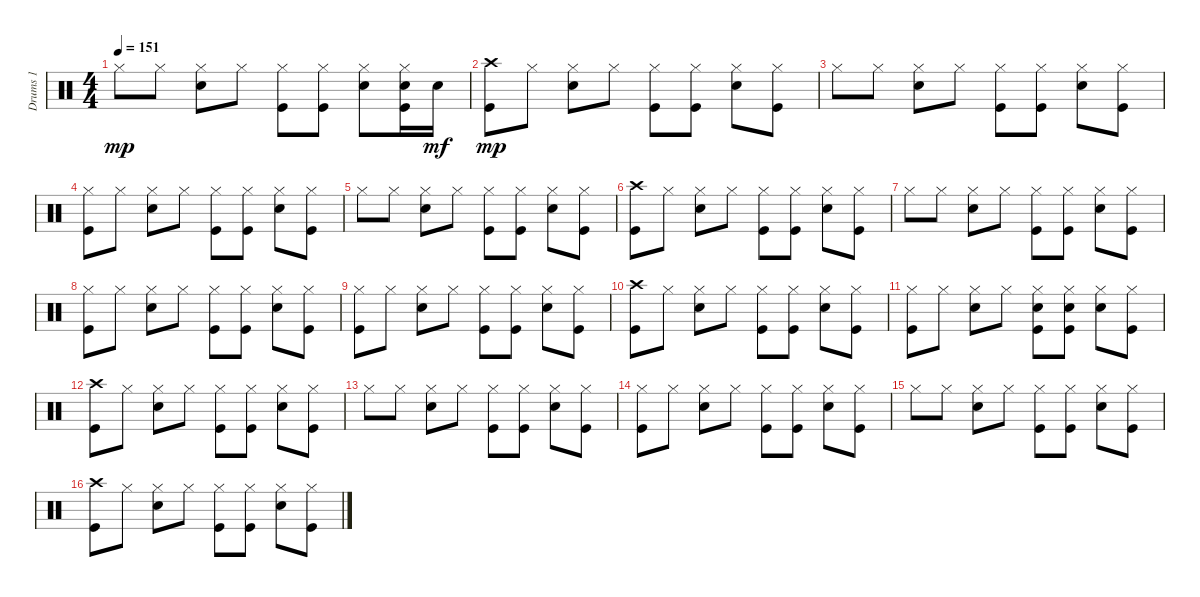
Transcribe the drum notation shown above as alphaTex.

\track ("Drums 1" "Drums 1") {instrument percussion}
\staff {score}
\articulation defaults
\ts (4 4)
\tempo 151
\clef neutral
\ks c "Hi-Hat (closed)".8{dy mp} "Hi-Hat (closed)".8
("Hi-Hat (closed)" "Snare (hit) 2").8 "Hi-Hat (closed)".8 ("Kick (hit)" "Hi-Hat (closed)").8 ("Kick (hit)" "Hi-Hat (closed)").8 ("Snare (hit) 2" "Hi-Hat (closed)").8 ("Snare (hit) 2" "Hi-Hat (closed)" "Kick (hit)").16 "Snare (hit) 2".16{dy mf} |
("Crash high (hit)" "Kick (hit)").8{dy mp} "Hi-Hat (closed)".8 ("Hi-Hat (closed)" "Snare (hit) 2").8 "Hi-Hat (closed)".8 ("Hi-Hat (closed)" "Kick (hit)").8 ("Kick (hit)" "Hi-Hat (closed)").8 ("Hi-Hat (closed)" "Snare (hit) 2").8 ("Hi-Hat (closed)" "Kick (hit)").8 |
"Hi-Hat (closed)".8 "Hi-Hat (closed)".8 ("Hi-Hat (closed)" "Snare (hit) 2").8 "Hi-Hat (closed)".8 ("Kick (hit)" "Hi-Hat (closed)").8 ("Kick (hit)" "Hi-Hat (closed)").8 ("Snare (hit) 2" "Hi-Hat (closed)").8 ("Hi-Hat (closed)" "Kick (hit)").8 |
("Hi-Hat (closed)" "Kick (hit)").8 "Hi-Hat (closed)".8 ("Hi-Hat (closed)" "Snare (hit) 2").8 "Hi-Hat (closed)".8 ("Hi-Hat (closed)" "Kick (hit)").8 ("Kick (hit)" "Hi-Hat (closed)").8 ("Hi-Hat (closed)" "Snare (hit) 2").8 ("Hi-Hat (closed)" "Kick (hit)").8 |
"Hi-Hat (closed)".8 "Hi-Hat (closed)".8 ("Hi-Hat (closed)" "Snare (hit) 2").8 "Hi-Hat (closed)".8 ("Kick (hit)" "Hi-Hat (closed)").8 ("Kick (hit)" "Hi-Hat (closed)").8 ("Snare (hit) 2" "Hi-Hat (closed)").8 ("Hi-Hat (closed)" "Kick (hit)").8 |
("Crash high (hit)" "Kick (hit)").8 "Hi-Hat (closed)".8 ("Hi-Hat (closed)" "Snare (hit) 2").8 "Hi-Hat (closed)".8 ("Hi-Hat (closed)" "Kick (hit)").8 ("Kick (hit)" "Hi-Hat (closed)").8 ("Hi-Hat (closed)" "Snare (hit) 2").8 ("Hi-Hat (closed)" "Kick (hit)").8 |
"Hi-Hat (closed)".8 "Hi-Hat (closed)".8 ("Hi-Hat (closed)" "Snare (hit) 2").8 "Hi-Hat (closed)".8 ("Kick (hit)" "Hi-Hat (closed)").8 ("Kick (hit)" "Hi-Hat (closed)").8 ("Snare (hit) 2" "Hi-Hat (closed)").8 ("Hi-Hat (closed)" "Kick (hit)").8 |
("Hi-Hat (closed)" "Kick (hit)").8 "Hi-Hat (closed)".8 ("Hi-Hat (closed)" "Snare (hit) 2").8 "Hi-Hat (closed)".8 ("Hi-Hat (closed)" "Kick (hit)").8 ("Kick (hit)" "Hi-Hat (closed)").8 ("Hi-Hat (closed)" "Snare (hit) 2").8 ("Hi-Hat (closed)" "Kick (hit)").8 |
("Hi-Hat (closed)" "Kick (hit)").8 "Hi-Hat (closed)".8 ("Hi-Hat (closed)" "Snare (hit) 2").8 "Hi-Hat (closed)".8 ("Hi-Hat (closed)" "Kick (hit)").8 ("Kick (hit)" "Hi-Hat (closed)").8 ("Hi-Hat (closed)" "Snare (hit) 2").8 ("Hi-Hat (closed)" "Kick (hit)").8 |
("Crash high (hit)" "Kick (hit)").8 "Hi-Hat (closed)".8 ("Hi-Hat (closed)" "Snare (hit) 2").8 "Hi-Hat (closed)".8 ("Hi-Hat (closed)" "Kick (hit)").8 ("Kick (hit)" "Hi-Hat (closed)").8 ("Hi-Hat (closed)" "Snare (hit) 2").8 ("Hi-Hat (closed)" "Kick (hit)").8 |
("Hi-Hat (closed)" "Kick (hit)").8 "Hi-Hat (closed)".8 ("Hi-Hat (closed)" "Snare (hit) 2").8 "Hi-Hat (closed)".8 ("Hi-Hat (closed)" "Kick (hit)" "Snare (hit) 2").8 ("Kick (hit)" "Snare (hit) 2" "Hi-Hat (closed)").8 ("Hi-Hat (closed)" "Snare (hit) 2").8 ("Hi-Hat (closed)" "Kick (hit)").8 |
("Crash high (hit)" "Kick (hit)").8 "Hi-Hat (closed)".8 ("Hi-Hat (closed)" "Snare (hit) 2").8 "Hi-Hat (closed)".8 ("Hi-Hat (closed)" "Kick (hit)").8 ("Kick (hit)" "Hi-Hat (closed)").8 ("Hi-Hat (closed)" "Snare (hit) 2").8 ("Hi-Hat (closed)" "Kick (hit)").8 |
"Hi-Hat (closed)".8 "Hi-Hat (closed)".8 ("Hi-Hat (closed)" "Snare (hit) 2").8 "Hi-Hat (closed)".8 ("Kick (hit)" "Hi-Hat (closed)").8 ("Kick (hit)" "Hi-Hat (closed)").8 ("Snare (hit) 2" "Hi-Hat (closed)").8 ("Hi-Hat (closed)" "Kick (hit)").8 |
("Hi-Hat (closed)" "Kick (hit)").8 "Hi-Hat (closed)".8 ("Hi-Hat (closed)" "Snare (hit) 2").8 "Hi-Hat (closed)".8 ("Hi-Hat (closed)" "Kick (hit)").8 ("Kick (hit)" "Hi-Hat (closed)").8 ("Hi-Hat (closed)" "Snare (hit) 2").8 ("Hi-Hat (closed)" "Kick (hit)").8 |
"Hi-Hat (closed)".8 "Hi-Hat (closed)".8 ("Hi-Hat (closed)" "Snare (hit) 2").8 "Hi-Hat (closed)".8 ("Kick (hit)" "Hi-Hat (closed)").8 ("Kick (hit)" "Hi-Hat (closed)").8 ("Snare (hit) 2" "Hi-Hat (closed)").8 ("Hi-Hat (closed)" "Kick (hit)").8 |
("Crash high (hit)" "Kick (hit)").8 "Hi-Hat (closed)".8 ("Hi-Hat (closed)" "Snare (hit) 2").8 "Hi-Hat (closed)".8 ("Hi-Hat (closed)" "Kick (hit)").8 ("Kick (hit)" "Hi-Hat (closed)").8 ("Hi-Hat (closed)" "Snare (hit) 2").8 ("Hi-Hat (closed)" "Kick (hit)").8
